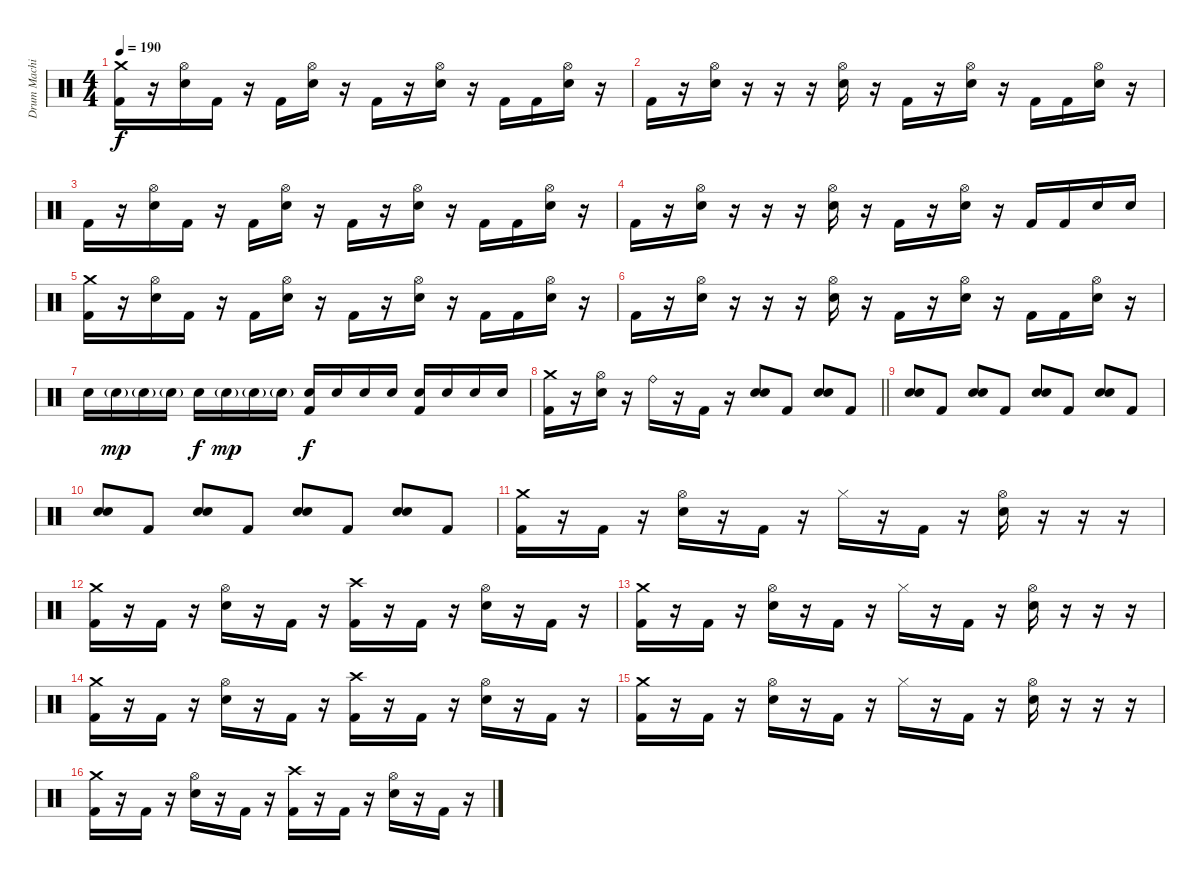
\track ("Drum Machine Man" "Drum Machi") {instrument percussion}
\staff {score}
\articulation defaults
\ts (4 4)
\tempo 190
\clef neutral
\ks c
("Kick (hit) 2" "Crash medium (hit)").16{dy f} r.16 ("Hi-Hat (open)" "Electric Snare (hit)").16 "Kick (hit) 2".16 r.16 "Kick (hit) 2".16 ("Hi-Hat (open)" "Electric Snare (hit)").16 r.16 "Kick (hit) 2".16 r.16 ("Hi-Hat (open)" "Electric Snare (hit)").16 r.16 "Kick (hit) 2".16 "Kick (hit) 2".16 ("Hi-Hat (open)" "Electric Snare (hit)").16 r.16 |
"Kick (hit) 2".16 r.16 ("Hi-Hat (open)" "Electric Snare (hit)").16 r.16 r.16 r.16 ("Hi-Hat (open)" "Electric Snare (hit)").16 r.16 "Kick (hit) 2".16 r.16 ("Hi-Hat (open)" "Electric Snare (hit)").16 r.16 "Kick (hit) 2".16 "Kick (hit) 2".16 ("Hi-Hat (open)" "Electric Snare (hit)").16 r.16 |
"Kick (hit) 2".16 r.16 ("Hi-Hat (open)" "Electric Snare (hit)").16 "Kick (hit) 2".16 r.16 "Kick (hit) 2".16 ("Hi-Hat (open)" "Electric Snare (hit)").16 r.16 "Kick (hit) 2".16 r.16 ("Hi-Hat (open)" "Electric Snare (hit)").16 r.16 "Kick (hit) 2".16 "Kick (hit) 2".16 ("Hi-Hat (open)" "Electric Snare (hit)").16 r.16 |
"Kick (hit) 2".16 r.16 ("Hi-Hat (open)" "Electric Snare (hit)").16 r.16 r.16 r.16 ("Hi-Hat (open)" "Electric Snare (hit)").16 r.16 "Kick (hit) 2".16 r.16 ("Hi-Hat (open)" "Electric Snare (hit)").16 r.16 "Kick (hit) 2".16 "Kick (hit) 2".16 "Electric Snare (hit)".16 "Electric Snare (hit)".16 |
("Kick (hit) 2" "Crash medium (hit)").16 r.16 ("Hi-Hat (open)" "Electric Snare (hit)").16 "Kick (hit) 2".16 r.16 "Kick (hit) 2".16 ("Hi-Hat (open)" "Electric Snare (hit)").16 r.16 "Kick (hit) 2".16 r.16 ("Hi-Hat (open)" "Electric Snare (hit)").16 r.16 "Kick (hit) 2".16 "Kick (hit) 2".16 ("Hi-Hat (open)" "Electric Snare (hit)").16 r.16 |
"Kick (hit) 2".16 r.16 ("Hi-Hat (open)" "Electric Snare (hit)").16 r.16 r.16 r.16 ("Hi-Hat (open)" "Electric Snare (hit)").16 r.16 "Kick (hit) 2".16 r.16 ("Hi-Hat (open)" "Electric Snare (hit)").16 r.16 "Kick (hit) 2".16 "Kick (hit) 2".16 ("Hi-Hat (open)" "Electric Snare (hit)").16 r.16 |
"Electric Snare (hit)".16 "Electric Snare (hit)"{g}.16{dy mp} "Electric Snare (hit)"{g}.16 "Electric Snare (hit)"{g}.16 "Electric Snare (hit)".16{dy f} "Electric Snare (hit)"{g}.16{dy mp} "Electric Snare (hit)"{g}.16 "Electric Snare (hit)"{g}.16 ("Electric Snare (hit)" "Kick (hit) 2").16{dy f} "Electric Snare (hit)".16 "Electric Snare (hit)".16 "Electric Snare (hit)".16 ("Electric Snare (hit)" "Kick (hit) 2").16 "Electric Snare (hit)".16 "Electric Snare (hit)".16 "Electric Snare (hit)".16 |
\barLineRight lightlight
("Crash medium (hit)" "Kick (hit) 2").16 r.16 ("Hi-Hat (open)" "Electric Snare (hit)").16 r.16 "Ride (bell)".16 r.16 "Kick (hit) 2".16 r.16 ("Electric Snare (hit)" "Electric Snare (hit)").8{bd 60} "Kick (hit) 2".8 ("Electric Snare (hit)" "Electric Snare (hit)").8{bu 60} "Kick (hit) 2".8 |
("Electric Snare (hit)" "Electric Snare (hit)").8{bd 60} "Kick (hit) 2".8 ("Electric Snare (hit)" "Electric Snare (hit)").8{bu 60} "Kick (hit) 2".8 ("Electric Snare (hit)" "Electric Snare (hit)").8{bd 60} "Kick (hit) 2".8 ("Electric Snare (hit)" "Electric Snare (hit)").8{bu 60} "Kick (hit) 2".8 |
("Electric Snare (hit)" "Electric Snare (hit)").8{bd 60} "Kick (hit) 2".8 ("Electric Snare (hit)" "Electric Snare (hit)").8{bu 60} "Kick (hit) 2".8 ("Electric Snare (hit)" "Electric Snare (hit)").8{bd 60} "Kick (hit) 2".8 ("Electric Snare (hit)" "Electric Snare (hit)").8{bu 60} "Kick (hit) 2".8 |
("Crash medium (hit)" "Kick (hit) 2").16 r.16 "Kick (hit) 2".16 r.16 ("Hi-Hat (open)" "Electric Snare (hit)").16 r.16 "Kick (hit) 2".16 r.16 "Hi-Hat (closed)".16 r.16 "Kick (hit) 2".16 r.16 ("Hi-Hat (open)" "Electric Snare (hit)").16 r.16 r.16 r.16 |
("Crash medium (hit)" "Kick (hit) 2").16 r.16 "Kick (hit) 2".16 r.16 ("Hi-Hat (open)" "Electric Snare (hit)").16 r.16 "Kick (hit) 2".16 r.16 ("Crash high (hit)" "Kick (hit) 2").16 r.16 "Kick (hit) 2".16 r.16 ("Hi-Hat (open)" "Electric Snare (hit)").16 r.16 "Kick (hit) 2".16 r.16 |
("Crash medium (hit)" "Kick (hit) 2").16 r.16 "Kick (hit) 2".16 r.16 ("Hi-Hat (open)" "Electric Snare (hit)").16 r.16 "Kick (hit) 2".16 r.16 "Hi-Hat (closed)".16 r.16 "Kick (hit) 2".16 r.16 ("Hi-Hat (open)" "Electric Snare (hit)").16 r.16 r.16 r.16 |
("Crash medium (hit)" "Kick (hit) 2").16 r.16 "Kick (hit) 2".16 r.16 ("Hi-Hat (open)" "Electric Snare (hit)").16 r.16 "Kick (hit) 2".16 r.16 ("Crash high (hit)" "Kick (hit) 2").16 r.16 "Kick (hit) 2".16 r.16 ("Hi-Hat (open)" "Electric Snare (hit)").16 r.16 "Kick (hit) 2".16 r.16 |
("Crash medium (hit)" "Kick (hit) 2").16 r.16 "Kick (hit) 2".16 r.16 ("Hi-Hat (open)" "Electric Snare (hit)").16 r.16 "Kick (hit) 2".16 r.16 "Hi-Hat (closed)".16 r.16 "Kick (hit) 2".16 r.16 ("Hi-Hat (open)" "Electric Snare (hit)").16 r.16 r.16 r.16 |
("Crash medium (hit)" "Kick (hit) 2").16 r.16 "Kick (hit) 2".16 r.16 ("Hi-Hat (open)" "Electric Snare (hit)").16 r.16 "Kick (hit) 2".16 r.16 ("Crash high (hit)" "Kick (hit) 2").16 r.16 "Kick (hit) 2".16 r.16 ("Hi-Hat (open)" "Electric Snare (hit)").16 r.16 "Kick (hit) 2".16 r.16
